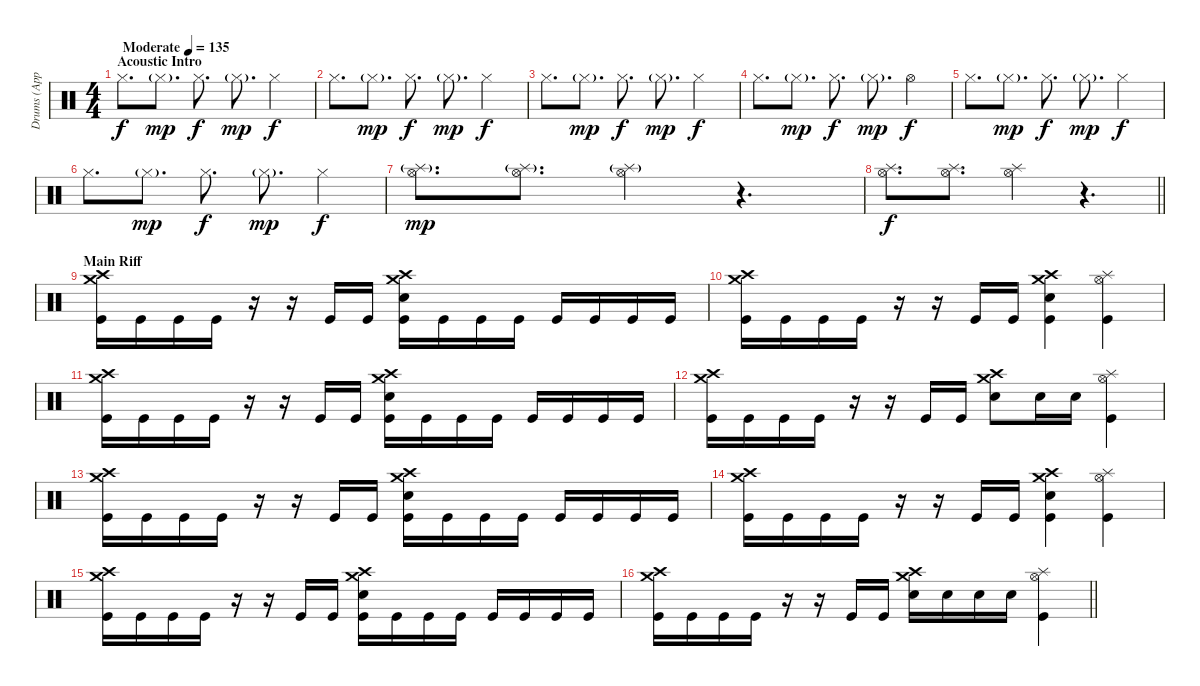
\track ("Drums (Approx.)" "Drums (App") {instrument percussion}
\staff {score}
\articulation defaults
\ts (4 4)
\section ("" "Acoustic Intro")
\tempo (135 "Moderate")
\clef neutral
\ks c "Hi-Hat (closed)".8{d dy f} "Hi-Hat (closed)"{g}.8{d dy mp} "Hi-Hat (closed)".8{d dy f} "Hi-Hat (closed)"{g}.8{d dy mp} "Hi-Hat (closed)".4{dy f}
|
"Hi-Hat (closed)".8{d} "Hi-Hat (closed)"{g}.8{d dy mp} "Hi-Hat (closed)".8{d dy f} "Hi-Hat (closed)"{g}.8{d dy mp} "Hi-Hat (closed)".4{dy f} |
"Hi-Hat (closed)".8{d} "Hi-Hat (closed)"{g}.8{d dy mp} "Hi-Hat (closed)".8{d dy f} "Hi-Hat (closed)"{g}.8{d dy mp} "Hi-Hat (closed)".4{dy f} |
"Hi-Hat (closed)".8{d} "Hi-Hat (closed)"{g}.8{d dy mp} "Hi-Hat (closed)".8{d dy f} "Hi-Hat (closed)"{g}.8{d dy mp} "Hi-Hat (open)".4{dy f} |
"Hi-Hat (closed)".8{d} "Hi-Hat (closed)"{g}.8{d dy mp} "Hi-Hat (closed)".8{d dy f} "Hi-Hat (closed)"{g}.8{d dy mp} "Hi-Hat (closed)".4{dy f} |
"Hi-Hat (closed)".8{d} "Hi-Hat (closed)"{g}.8{d dy mp} "Hi-Hat (closed)".8{d dy f} "Hi-Hat (closed)"{g}.8{d dy mp} "Hi-Hat (closed)".4{dy f} |
("Hi-Hat (open)" "Splash (hit)"{g}).8{d dy mp} ("Hi-Hat (open)" "Splash (hit)"{g}).8{d} ("Hi-Hat (open)" "Splash (hit)"{g}).4 r.4{d} |
\barLineRight lightlight
("Hi-Hat (open)" "Splash (hit)").8{d dy f} ("Hi-Hat (open)" "Splash (hit)").8{d} ("Hi-Hat (open)" "Splash (hit)").4 r.4{d} |
\section ("" "Main Riff")
("Crash medium (hit)" "Crash high (hit)" "Kick (hit)").16 "Kick (hit)".16 "Kick (hit)".16 "Kick (hit)".16 r.16 r.16 "Kick (hit)".16 "Kick (hit)".16 ("Crash medium (hit)" "Crash high (hit)" "Electric Snare (hit)" "Kick (hit)").16 "Kick (hit)".16 "Kick (hit)".16 "Kick (hit)".16 "Kick (hit)".16 "Kick (hit)".16 "Kick (hit)".16 "Kick (hit)".16 |
("Crash medium (hit)" "Crash high (hit)" "Kick (hit)").16 "Kick (hit)".16 "Kick (hit)".16 "Kick (hit)".16 r.16 r.16 "Kick (hit)".16 "Kick (hit)".16 ("Crash medium (hit)" "Crash high (hit)" "Electric Snare (hit)" "Kick (hit)").4 ("Hi-Hat (open)" "Splash (hit)" "Kick (hit)").4 |
("Crash medium (hit)" "Crash high (hit)" "Kick (hit)").16 "Kick (hit)".16 "Kick (hit)".16 "Kick (hit)".16 r.16 r.16 "Kick (hit)".16 "Kick (hit)".16 ("Crash medium (hit)" "Crash high (hit)" "Electric Snare (hit)" "Kick (hit)").16 "Kick (hit)".16 "Kick (hit)".16 "Kick (hit)".16 "Kick (hit)".16 "Kick (hit)".16 "Kick (hit)".16 "Kick (hit)".16 |
("Crash medium (hit)" "Crash high (hit)" "Kick (hit)").16 "Kick (hit)".16 "Kick (hit)".16 "Kick (hit)".16 r.16 r.16 "Kick (hit)".16 "Kick (hit)".16 ("Crash medium (hit)" "Crash high (hit)" "Electric Snare (hit)").8 "Electric Snare (hit)".16 "Electric Snare (hit)".16 ("Splash (hit)" "Hi-Hat (open)" "Kick (hit)").4 |
("Crash medium (hit)" "Crash high (hit)" "Kick (hit)").16 "Kick (hit)".16 "Kick (hit)".16 "Kick (hit)".16 r.16 r.16 "Kick (hit)".16 "Kick (hit)".16 ("Crash medium (hit)" "Crash high (hit)" "Electric Snare (hit)" "Kick (hit)").16 "Kick (hit)".16 "Kick (hit)".16 "Kick (hit)".16 "Kick (hit)".16 "Kick (hit)".16 "Kick (hit)".16 "Kick (hit)".16 |
("Crash medium (hit)" "Crash high (hit)" "Kick (hit)").16 "Kick (hit)".16 "Kick (hit)".16 "Kick (hit)".16 r.16 r.16 "Kick (hit)".16 "Kick (hit)".16 ("Crash medium (hit)" "Crash high (hit)" "Electric Snare (hit)" "Kick (hit)").4 ("Hi-Hat (open)" "Splash (hit)" "Kick (hit)").4 |
("Crash medium (hit)" "Crash high (hit)" "Kick (hit)").16 "Kick (hit)".16 "Kick (hit)".16 "Kick (hit)".16 r.16 r.16 "Kick (hit)".16 "Kick (hit)".16 ("Crash medium (hit)" "Crash high (hit)" "Electric Snare (hit)" "Kick (hit)").16 "Kick (hit)".16 "Kick (hit)".16 "Kick (hit)".16 "Kick (hit)".16 "Kick (hit)".16 "Kick (hit)".16 "Kick (hit)".16 |
\barLineRight lightlight
("Crash medium (hit)" "Crash high (hit)" "Kick (hit)").16 "Kick (hit)".16 "Kick (hit)".16 "Kick (hit)".16 r.16 r.16 "Kick (hit)".16 "Kick (hit)".16 ("Crash medium (hit)" "Crash high (hit)" "Electric Snare (hit)").16 "Electric Snare (hit)".16 "Electric Snare (hit)".16 "Electric Snare (hit)".16 ("Splash (hit)" "Hi-Hat (open)" "Kick (hit)").4
